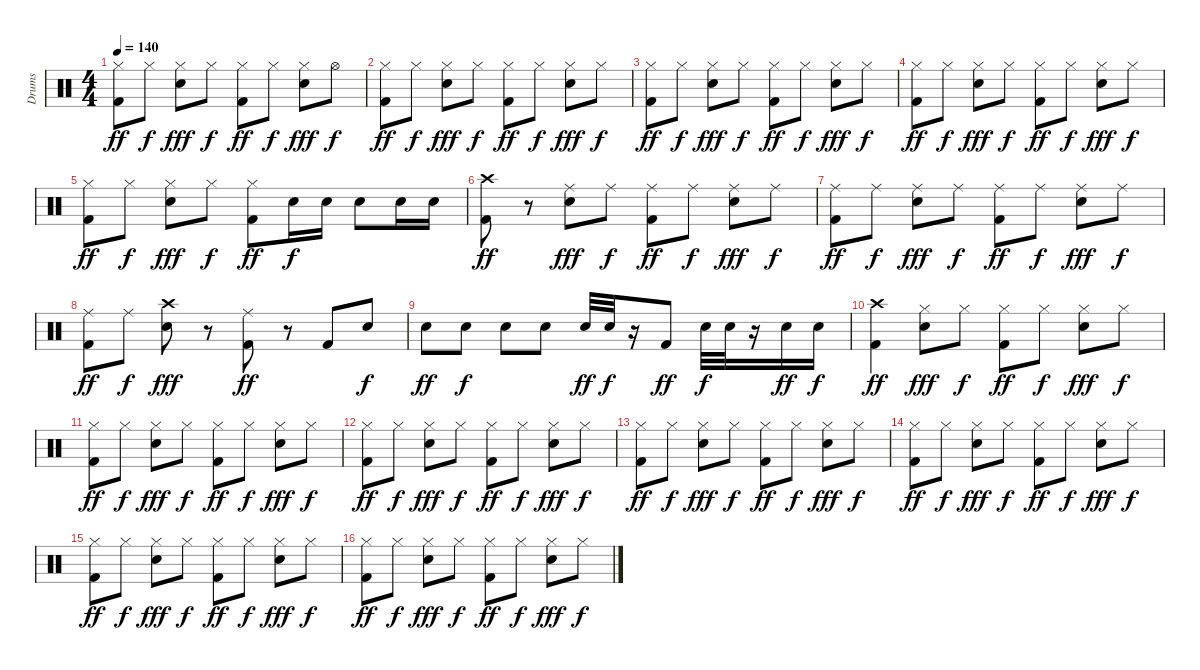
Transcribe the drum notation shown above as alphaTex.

\track ("Drums" "Drums") {instrument percussion}
\staff {score}
\articulation defaults
\ts (4 4)
\tempo 140
\clef neutral
\ks c
("Hi-Hat (closed)" "Kick (hit) 2").8{dy ff} "Hi-Hat (closed)".8{dy f} ("Hi-Hat (closed)" "Snare (hit) 2").8{dy fff} "Hi-Hat (closed)".8{dy f} ("Hi-Hat (closed)" "Kick (hit) 2").8{dy ff} "Hi-Hat (closed)".8{dy f} ("Hi-Hat (closed)" "Snare (hit) 2").8{dy fff} "Hi-Hat (open)".8{dy f} |
("Hi-Hat (closed)" "Kick (hit) 2").8{dy ff} "Hi-Hat (closed)".8{dy f} ("Hi-Hat (closed)" "Snare (hit) 2").8{dy fff} "Hi-Hat (closed)".8{dy f} ("Hi-Hat (closed)" "Kick (hit) 2").8{dy ff} "Hi-Hat (closed)".8{dy f} ("Hi-Hat (closed)" "Snare (hit) 2").8{dy fff} "Hi-Hat (closed)".8{dy f} |
("Hi-Hat (closed)" "Kick (hit) 2").8{dy ff} "Hi-Hat (closed)".8{dy f} ("Hi-Hat (closed)" "Snare (hit) 2").8{dy fff} "Hi-Hat (closed)".8{dy f} ("Hi-Hat (closed)" "Kick (hit) 2").8{dy ff} "Hi-Hat (closed)".8{dy f} ("Hi-Hat (closed)" "Snare (hit) 2").8{dy fff} "Hi-Hat (closed)".8{dy f} |
("Hi-Hat (closed)" "Kick (hit) 2").8{dy ff} "Hi-Hat (closed)".8{dy f} ("Hi-Hat (closed)" "Snare (hit) 2").8{dy fff} "Hi-Hat (closed)".8{dy f} ("Hi-Hat (closed)" "Kick (hit) 2").8{dy ff} "Hi-Hat (closed)".8{dy f} ("Hi-Hat (closed)" "Snare (hit) 2").8{dy fff} "Hi-Hat (closed)".8{dy f} |
("Hi-Hat (closed)" "Kick (hit) 2").8{dy ff} "Hi-Hat (closed)".8{dy f} ("Hi-Hat (closed)" "Snare (hit) 2").8{dy fff} "Hi-Hat (closed)".8{dy f} ("Hi-Hat (closed)" "Kick (hit) 2").8{dy ff} "Snare (hit) 2".16{dy f} "Snare (hit) 2".16 "Snare (hit) 2".8 "Snare (hit) 2".16 "Snare (hit) 2".16 |
("Crash high (hit)" "Kick (hit) 2").8{dy ff} r.8 ("Ride (middle)" "Snare (hit) 2").8{dy fff} "Ride (middle)".8{dy f} ("Ride (middle)" "Kick (hit) 2").8{dy ff} "Ride (middle)".8{dy f} ("Ride (middle)" "Snare (hit) 2").8{dy fff} "Ride (middle)".8{dy f} |
("Ride (middle)" "Kick (hit) 2").8{dy ff} "Ride (middle)".8{dy f} ("Ride (middle)" "Snare (hit) 2").8{dy fff} "Ride (middle)".8{dy f} ("Ride (middle)" "Kick (hit) 2").8{dy ff} "Ride (middle)".8{dy f} ("Ride (middle)" "Snare (hit) 2").8{dy fff} "Ride (middle)".8{dy f} |
("Ride (middle)" "Kick (hit) 2").8{dy ff} "Ride (middle)".8{dy f} ("Crash high (hit)" "Snare (hit) 2").8{dy fff} r.8 ("Ride (middle)" "Kick (hit) 2").8{dy ff} r.8 "Kick (hit) 2".8 "Snare (hit) 2".8{dy f} |
"Snare (hit) 2".8{dy ff} "Snare (hit) 2".8{dy f} "Snare (hit) 2".8 "Snare (hit) 2".8 "Snare (hit) 2".32{dy ff} "Snare (hit) 2".32{dy f} r.16 "Kick (hit) 2".8{dy ff} "Snare (hit) 2".32{dy f} "Snare (hit) 2".32 r.16 "Snare (hit) 2".16{dy ff} "Snare (hit) 2".16{dy f} |
("Crash high (hit)" "Kick (hit) 2").4{dy ff} ("Hi-Hat (closed)" "Snare (hit) 2").8{dy fff} "Hi-Hat (closed)".8{dy f} ("Hi-Hat (closed)" "Kick (hit) 2").8{dy ff} "Hi-Hat (closed)".8{dy f} ("Hi-Hat (closed)" "Snare (hit) 2").8{dy fff} "Hi-Hat (closed)".8{dy f} |
("Hi-Hat (closed)" "Kick (hit) 2").8{dy ff} "Hi-Hat (closed)".8{dy f} ("Hi-Hat (closed)" "Snare (hit) 2").8{dy fff} "Hi-Hat (closed)".8{dy f} ("Hi-Hat (closed)" "Kick (hit) 2").8{dy ff} "Hi-Hat (closed)".8{dy f} ("Hi-Hat (closed)" "Snare (hit) 2").8{dy fff} "Hi-Hat (closed)".8{dy f} |
("Hi-Hat (closed)" "Kick (hit) 2").8{dy ff} "Hi-Hat (closed)".8{dy f} ("Hi-Hat (closed)" "Snare (hit) 2").8{dy fff} "Hi-Hat (closed)".8{dy f} ("Hi-Hat (closed)" "Kick (hit) 2").8{dy ff} "Hi-Hat (closed)".8{dy f} ("Hi-Hat (closed)" "Snare (hit) 2").8{dy fff} "Hi-Hat (closed)".8{dy f} |
("Hi-Hat (closed)" "Kick (hit) 2").8{dy ff} "Hi-Hat (closed)".8{dy f} ("Hi-Hat (closed)" "Snare (hit) 2").8{dy fff} "Hi-Hat (closed)".8{dy f} ("Hi-Hat (closed)" "Kick (hit) 2").8{dy ff} "Hi-Hat (closed)".8{dy f} ("Hi-Hat (closed)" "Snare (hit) 2").8{dy fff} "Hi-Hat (closed)".8{dy f} |
("Hi-Hat (closed)" "Kick (hit) 2").8{dy ff} "Hi-Hat (closed)".8{dy f} ("Hi-Hat (closed)" "Snare (hit) 2").8{dy fff} "Hi-Hat (closed)".8{dy f} ("Hi-Hat (closed)" "Kick (hit) 2").8{dy ff} "Hi-Hat (closed)".8{dy f} ("Hi-Hat (closed)" "Snare (hit) 2").8{dy fff} "Hi-Hat (closed)".8{dy f} |
("Hi-Hat (closed)" "Kick (hit) 2").8{dy ff} "Hi-Hat (closed)".8{dy f} ("Hi-Hat (closed)" "Snare (hit) 2").8{dy fff} "Hi-Hat (closed)".8{dy f} ("Hi-Hat (closed)" "Kick (hit) 2").8{dy ff} "Hi-Hat (closed)".8{dy f} ("Hi-Hat (closed)" "Snare (hit) 2").8{dy fff} "Hi-Hat (closed)".8{dy f} |
("Hi-Hat (closed)" "Kick (hit) 2").8{dy ff} "Hi-Hat (closed)".8{dy f} ("Hi-Hat (closed)" "Snare (hit) 2").8{dy fff} "Hi-Hat (closed)".8{dy f} ("Hi-Hat (closed)" "Kick (hit) 2").8{dy ff} "Hi-Hat (closed)".8{dy f} ("Hi-Hat (closed)" "Snare (hit) 2").8{dy fff} "Hi-Hat (closed)".8{dy f}
